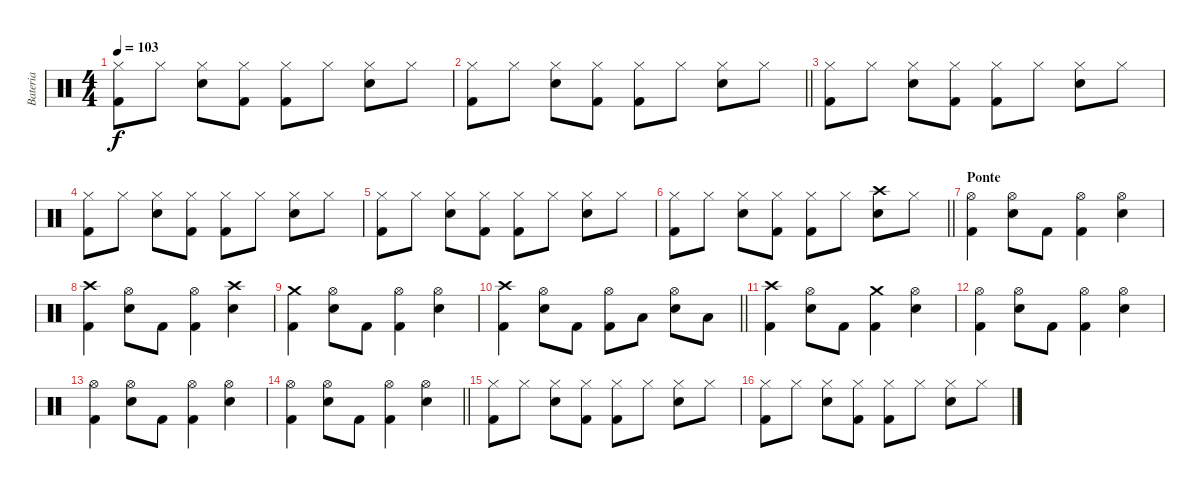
\track ("Bateria" "Bateria") {instrument percussion}
\staff {score}
\articulation defaults
\ts (4 4)
\tempo 103
\clef neutral
\ks c
("Hi-Hat (closed)" "Kick (hit) 2").8{dy f} "Hi-Hat (closed)".8 ("Hi-Hat (closed)" "Snare (hit) 2").8 ("Hi-Hat (closed)" "Kick (hit) 2").8 ("Hi-Hat (closed)" "Kick (hit) 2").8 "Hi-Hat (closed)".8 ("Hi-Hat (closed)" "Snare (hit) 2").8 "Hi-Hat (closed)".8 |
\barLineRight lightlight
("Hi-Hat (closed)" "Kick (hit) 2").8 "Hi-Hat (closed)".8 ("Hi-Hat (closed)" "Snare (hit) 2").8 ("Hi-Hat (closed)" "Kick (hit) 2").8 ("Hi-Hat (closed)" "Kick (hit) 2").8 "Hi-Hat (closed)".8 ("Hi-Hat (closed)" "Snare (hit) 2").8 "Hi-Hat (closed)".8 |
("Hi-Hat (closed)" "Kick (hit) 2").8 "Hi-Hat (closed)".8 ("Hi-Hat (closed)" "Snare (hit) 2").8 ("Hi-Hat (closed)" "Kick (hit) 2").8 ("Hi-Hat (closed)" "Kick (hit) 2").8 "Hi-Hat (closed)".8 ("Hi-Hat (closed)" "Snare (hit) 2").8 "Hi-Hat (closed)".8 |
("Hi-Hat (closed)" "Kick (hit) 2").8 "Hi-Hat (closed)".8 ("Hi-Hat (closed)" "Snare (hit) 2").8 ("Hi-Hat (closed)" "Kick (hit) 2").8 ("Hi-Hat (closed)" "Kick (hit) 2").8 "Hi-Hat (closed)".8 ("Hi-Hat (closed)" "Snare (hit) 2").8 "Hi-Hat (closed)".8 |
("Hi-Hat (closed)" "Kick (hit) 2").8 "Hi-Hat (closed)".8 ("Hi-Hat (closed)" "Snare (hit) 2").8 ("Hi-Hat (closed)" "Kick (hit) 2").8 ("Hi-Hat (closed)" "Kick (hit) 2").8 "Hi-Hat (closed)".8 ("Hi-Hat (closed)" "Snare (hit) 2").8 "Hi-Hat (closed)".8 |
\barLineRight lightlight
("Hi-Hat (closed)" "Kick (hit) 2").8 "Hi-Hat (closed)".8 ("Hi-Hat (closed)" "Snare (hit) 2").8 ("Hi-Hat (closed)" "Kick (hit) 2").8 ("Hi-Hat (closed)" "Kick (hit) 2").8 "Hi-Hat (closed)".8 ("Crash high (hit)" "Snare (hit) 2").8 "Hi-Hat (closed)".8 |
\section ("" "Ponte")
("Hi-Hat (open)" "Kick (hit) 2").4 ("Hi-Hat (open)" "Snare (hit) 2").8 "Kick (hit) 2".8 ("Hi-Hat (open)" "Kick (hit) 2").4 ("Hi-Hat (open)" "Snare (hit) 2").4 |
("Crash high (hit)" "Kick (hit) 2").4 ("Hi-Hat (open)" "Snare (hit) 2").8 "Kick (hit) 2".8 ("Hi-Hat (open)" "Kick (hit) 2").4 ("Crash high (hit)" "Snare (hit) 2").4 |
("Crash medium (hit)" "Kick (hit) 2").4 ("Hi-Hat (open)" "Snare (hit) 2").8 "Kick (hit) 2".8 ("Hi-Hat (open)" "Kick (hit) 2").4 ("Hi-Hat (open)" "Snare (hit) 2").4 |
\barLineRight lightlight
("Crash high (hit)" "Kick (hit) 2").4 ("Hi-Hat (open)" "Snare (hit) 2").8 "Kick (hit) 2".8 ("Hi-Hat (open)" "Kick (hit) 2").8 "Low Tom (hit)".8 ("Hi-Hat (open)" "Snare (hit) 2").8 "Low Tom (hit)".8 |
("Crash high (hit)" "Kick (hit) 2").4 ("Hi-Hat (open)" "Snare (hit) 2").8 "Kick (hit) 2".8 ("Crash medium (hit)" "Kick (hit) 2").4 ("Hi-Hat (open)" "Snare (hit) 2").4 |
("Hi-Hat (open)" "Kick (hit) 2").4 ("Hi-Hat (open)" "Snare (hit) 2").8 "Kick (hit) 2".8 ("Hi-Hat (open)" "Kick (hit) 2").4 ("Hi-Hat (open)" "Snare (hit) 2").4 |
("Hi-Hat (open)" "Kick (hit) 2").4 ("Hi-Hat (open)" "Snare (hit) 2").8 "Kick (hit) 2".8 ("Hi-Hat (open)" "Kick (hit) 2").4 ("Hi-Hat (open)" "Snare (hit) 2").4 |
\barLineRight lightlight
("Hi-Hat (open)" "Kick (hit) 2").4 ("Hi-Hat (open)" "Snare (hit) 2").8 "Kick (hit) 2".8 ("Hi-Hat (open)" "Kick (hit) 2").4 ("Hi-Hat (open)" "Snare (hit) 2").4 |
("Hi-Hat (closed)" "Kick (hit) 2").8 "Hi-Hat (closed)".8 ("Hi-Hat (closed)" "Snare (hit) 2").8 ("Hi-Hat (closed)" "Kick (hit) 2").8 ("Hi-Hat (closed)" "Kick (hit) 2").8 "Hi-Hat (closed)".8 ("Hi-Hat (closed)" "Snare (hit) 2").8 "Hi-Hat (closed)".8 |
("Hi-Hat (closed)" "Kick (hit) 2").8 "Hi-Hat (closed)".8 ("Hi-Hat (closed)" "Snare (hit) 2").8 ("Hi-Hat (closed)" "Kick (hit) 2").8 ("Hi-Hat (closed)" "Kick (hit) 2").8 "Hi-Hat (closed)".8 ("Hi-Hat (closed)" "Snare (hit) 2").8 "Hi-Hat (closed)".8
